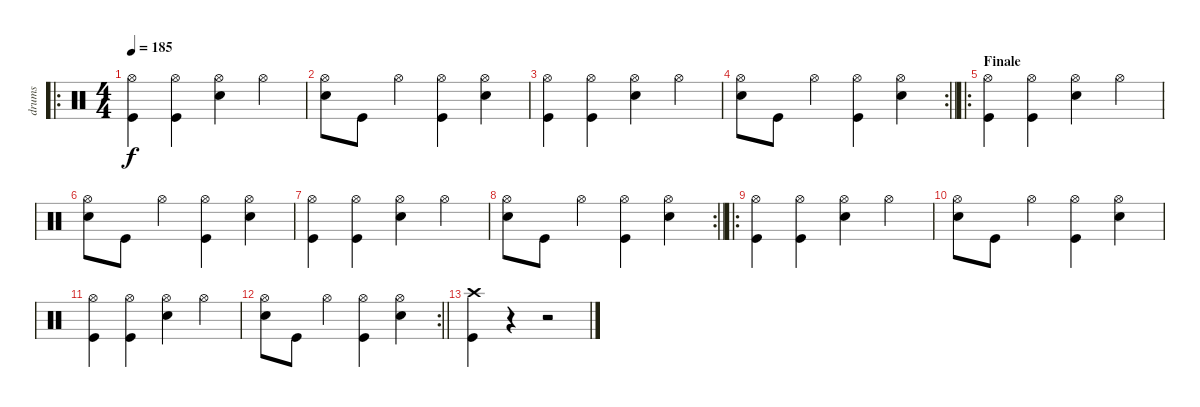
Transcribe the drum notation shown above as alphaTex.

\track ("drums" "drums") {instrument percussion}
\staff {score}
\articulation defaults
\ro
\ts (4 4)
\tempo 185
\clef neutral
\ks c
("Hi-Hat (open)" "Kick (hit)").4{dy f} ("Hi-Hat (open)" "Kick (hit)").4 ("Hi-Hat (open)" "Snare (hit) 2").4 "Hi-Hat (open)".4 |
("Hi-Hat (open)" "Snare (hit) 2").8 "Kick (hit)".8 "Hi-Hat (open)".4 ("Hi-Hat (open)" "Kick (hit)").4 ("Hi-Hat (open)" "Snare (hit) 2").4 |
("Hi-Hat (open)" "Kick (hit)").4 ("Hi-Hat (open)" "Kick (hit)").4 ("Hi-Hat (open)" "Snare (hit) 2").4 "Hi-Hat (open)".4 |
\rc 2
\barLineRight lightlight
("Hi-Hat (open)" "Snare (hit) 2").8 "Kick (hit)".8 "Hi-Hat (open)".4 ("Hi-Hat (open)" "Kick (hit)").4 ("Hi-Hat (open)" "Snare (hit) 2").4 |
\ro
\section ("" "Finale")
("Hi-Hat (open)" "Kick (hit)").4 ("Hi-Hat (open)" "Kick (hit)").4 ("Hi-Hat (open)" "Snare (hit) 2").4 "Hi-Hat (open)".4 |
("Hi-Hat (open)" "Snare (hit) 2").8 "Kick (hit)".8 "Hi-Hat (open)".4 ("Hi-Hat (open)" "Kick (hit)").4 ("Hi-Hat (open)" "Snare (hit) 2").4 |
("Hi-Hat (open)" "Kick (hit)").4 ("Hi-Hat (open)" "Kick (hit)").4 ("Hi-Hat (open)" "Snare (hit) 2").4 "Hi-Hat (open)".4 |
\rc 2
\barLineRight lightlight
("Hi-Hat (open)" "Snare (hit) 2").8 "Kick (hit)".8 "Hi-Hat (open)".4 ("Hi-Hat (open)" "Kick (hit)").4 ("Hi-Hat (open)" "Snare (hit) 2").4 |
\ro
("Hi-Hat (open)" "Kick (hit)").4 ("Hi-Hat (open)" "Kick (hit)").4 ("Hi-Hat (open)" "Snare (hit) 2").4 "Hi-Hat (open)".4 |
("Hi-Hat (open)" "Snare (hit) 2").8 "Kick (hit)".8 "Hi-Hat (open)".4 ("Hi-Hat (open)" "Kick (hit)").4 ("Hi-Hat (open)" "Snare (hit) 2").4 |
("Hi-Hat (open)" "Kick (hit)").4 ("Hi-Hat (open)" "Kick (hit)").4 ("Hi-Hat (open)" "Snare (hit) 2").4 "Hi-Hat (open)".4 |
\rc 2
\barLineRight lightlight
("Hi-Hat (open)" "Snare (hit) 2").8 "Kick (hit)".8 "Hi-Hat (open)".4 ("Hi-Hat (open)" "Kick (hit)").4 ("Hi-Hat (open)" "Snare (hit) 2").4 |
("Crash high (hit)" "Kick (hit)").4 r.4 r.2
